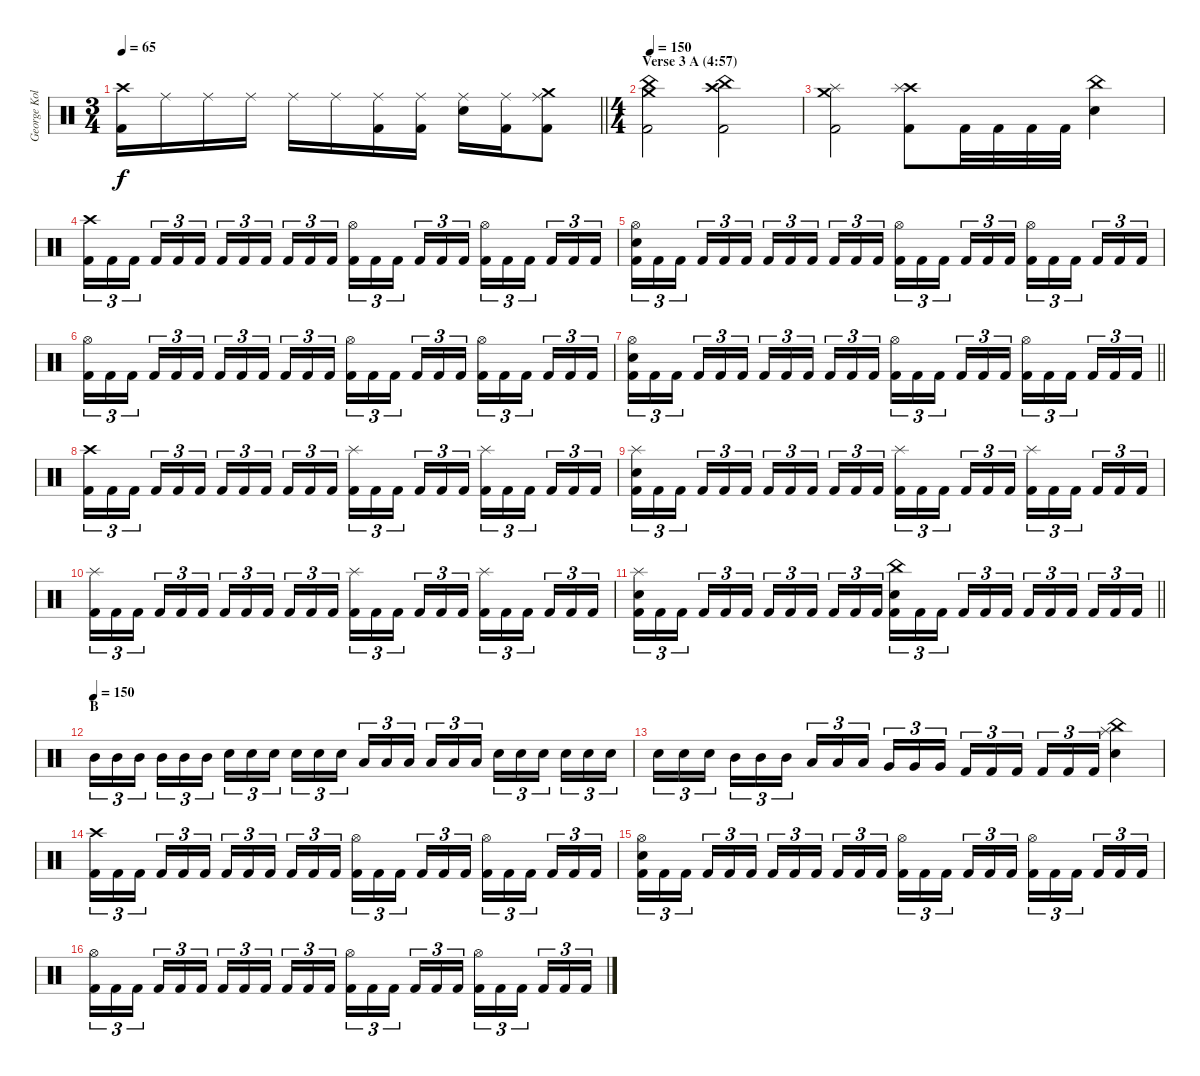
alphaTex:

\track ("George Kollias" "George Kol") {instrument percussion}
\staff {score}
\articulation defaults
\ts (3 4)
\tempo 65
\clef neutral
\barLineRight lightlight
\ks c
("Crash high (hit)" "Kick (hit) 2").16{dy f} "Ride (middle)".16 "Ride (middle)".16 "Ride (middle)".16 "Ride (middle)".16 "Ride (middle)".16 ("Ride (middle)" "Kick (hit) 2").16 ("Ride (middle)" "Kick (hit) 2").16 ("Ride (middle)" "Electric Snare (hit)").16 ("Ride (middle)" "Kick (hit) 2").16 ("Crash medium (hit)" "Ride (middle)" "Kick (hit) 2").8 |
\ts (4 4)
\section ("" "Verse 3 A (4:57)")
\tempo 140
\tempo 150
("China (hit)" "Crash medium (hit)" "Kick (hit) 2").2 ("China (hit)" "Crash high (hit)" "Kick (hit) 2").2 |
("Crash medium (hit)" "Splash (hit)" "Kick (hit) 2").2 ("Crash high (hit)" "Splash (hit)" "Kick (hit) 2").8 "Kick (hit) 2".32 "Kick (hit) 2".32 "Kick (hit) 2".32 "Kick (hit) 2".32 ("China (hit)" "Electric Snare (hit)").4 |
("Crash high (hit)" "Kick (hit) 2").16{tu (3 2)} "Kick (hit) 2".16{tu (3 2)} "Kick (hit) 2".16{tu (3 2) beam splitsecondary} "Kick (hit) 2".16{tu (3 2)} "Kick (hit) 2".16{tu (3 2)} "Kick (hit) 2".16{tu (3 2)} "Kick (hit) 2".16{tu (3 2)} "Kick (hit) 2".16{tu (3 2)} "Kick (hit) 2".16{tu (3 2) beam splitsecondary} "Kick (hit) 2".16{tu (3 2)} "Kick (hit) 2".16{tu (3 2)} "Kick (hit) 2".16{tu (3 2)} ("Hi-Hat (open)" "Kick (hit) 2").16{tu (3 2)} "Kick (hit) 2".16{tu (3 2)} "Kick (hit) 2".16{tu (3 2) beam splitsecondary} "Kick (hit) 2".16{tu (3 2)} "Kick (hit) 2".16{tu (3 2)} "Kick (hit) 2".16{tu (3 2)} ("Hi-Hat (open)" "Kick (hit) 2").16{tu (3 2)} "Kick (hit) 2".16{tu (3 2)} "Kick (hit) 2".16{tu (3 2) beam splitsecondary} "Kick (hit) 2".16{tu (3 2)} "Kick (hit) 2".16{tu (3 2)} "Kick (hit) 2".16{tu (3 2)} |
("Hi-Hat (open)" "Electric Snare (hit)" "Kick (hit) 2").16{tu (3 2)} "Kick (hit) 2".16{tu (3 2)} "Kick (hit) 2".16{tu (3 2) beam splitsecondary} "Kick (hit) 2".16{tu (3 2)} "Kick (hit) 2".16{tu (3 2)} "Kick (hit) 2".16{tu (3 2)} "Kick (hit) 2".16{tu (3 2)} "Kick (hit) 2".16{tu (3 2)} "Kick (hit) 2".16{tu (3 2) beam splitsecondary} "Kick (hit) 2".16{tu (3 2)} "Kick (hit) 2".16{tu (3 2)} "Kick (hit) 2".16{tu (3 2)} ("Hi-Hat (open)" "Kick (hit) 2").16{tu (3 2)} "Kick (hit) 2".16{tu (3 2)} "Kick (hit) 2".16{tu (3 2) beam splitsecondary} "Kick (hit) 2".16{tu (3 2)} "Kick (hit) 2".16{tu (3 2)} "Kick (hit) 2".16{tu (3 2)} ("Hi-Hat (open)" "Kick (hit) 2").16{tu (3 2)} "Kick (hit) 2".16{tu (3 2)} "Kick (hit) 2".16{tu (3 2) beam splitsecondary} "Kick (hit) 2".16{tu (3 2)} "Kick (hit) 2".16{tu (3 2)} "Kick (hit) 2".16{tu (3 2)} |
("Hi-Hat (open)" "Kick (hit) 2").16{tu (3 2)} "Kick (hit) 2".16{tu (3 2)} "Kick (hit) 2".16{tu (3 2) beam splitsecondary} "Kick (hit) 2".16{tu (3 2)} "Kick (hit) 2".16{tu (3 2)} "Kick (hit) 2".16{tu (3 2)} "Kick (hit) 2".16{tu (3 2)} "Kick (hit) 2".16{tu (3 2)} "Kick (hit) 2".16{tu (3 2) beam splitsecondary} "Kick (hit) 2".16{tu (3 2)} "Kick (hit) 2".16{tu (3 2)} "Kick (hit) 2".16{tu (3 2)} ("Hi-Hat (open)" "Kick (hit) 2").16{tu (3 2)} "Kick (hit) 2".16{tu (3 2)} "Kick (hit) 2".16{tu (3 2) beam splitsecondary} "Kick (hit) 2".16{tu (3 2)} "Kick (hit) 2".16{tu (3 2)} "Kick (hit) 2".16{tu (3 2)} ("Hi-Hat (open)" "Kick (hit) 2").16{tu (3 2)} "Kick (hit) 2".16{tu (3 2)} "Kick (hit) 2".16{tu (3 2) beam splitsecondary} "Kick (hit) 2".16{tu (3 2)} "Kick (hit) 2".16{tu (3 2)} "Kick (hit) 2".16{tu (3 2)} |
\barLineRight lightlight
("Hi-Hat (open)" "Electric Snare (hit)" "Kick (hit) 2").16{tu (3 2)} "Kick (hit) 2".16{tu (3 2)} "Kick (hit) 2".16{tu (3 2) beam splitsecondary} "Kick (hit) 2".16{tu (3 2)} "Kick (hit) 2".16{tu (3 2)} "Kick (hit) 2".16{tu (3 2)} "Kick (hit) 2".16{tu (3 2)} "Kick (hit) 2".16{tu (3 2)} "Kick (hit) 2".16{tu (3 2) beam splitsecondary} "Kick (hit) 2".16{tu (3 2)} "Kick (hit) 2".16{tu (3 2)} "Kick (hit) 2".16{tu (3 2)} ("Hi-Hat (open)" "Kick (hit) 2").16{tu (3 2)} "Kick (hit) 2".16{tu (3 2)} "Kick (hit) 2".16{tu (3 2) beam splitsecondary} "Kick (hit) 2".16{tu (3 2)} "Kick (hit) 2".16{tu (3 2)} "Kick (hit) 2".16{tu (3 2)} ("Hi-Hat (open)" "Kick (hit) 2").16{tu (3 2)} "Kick (hit) 2".16{tu (3 2)} "Kick (hit) 2".16{tu (3 2) beam splitsecondary} "Kick (hit) 2".16{tu (3 2)} "Kick (hit) 2".16{tu (3 2)} "Kick (hit) 2".16{tu (3 2)} |
("Crash high (hit)" "Kick (hit) 2").16{tu (3 2)} "Kick (hit) 2".16{tu (3 2)} "Kick (hit) 2".16{tu (3 2) beam splitsecondary} "Kick (hit) 2".16{tu (3 2)} "Kick (hit) 2".16{tu (3 2)} "Kick (hit) 2".16{tu (3 2)} "Kick (hit) 2".16{tu (3 2)} "Kick (hit) 2".16{tu (3 2)} "Kick (hit) 2".16{tu (3 2) beam splitsecondary} "Kick (hit) 2".16{tu (3 2)} "Kick (hit) 2".16{tu (3 2)} "Kick (hit) 2".16{tu (3 2)} ("Splash (hit)" "Kick (hit) 2").16{tu (3 2)} "Kick (hit) 2".16{tu (3 2)} "Kick (hit) 2".16{tu (3 2) beam splitsecondary} "Kick (hit) 2".16{tu (3 2)} "Kick (hit) 2".16{tu (3 2)} "Kick (hit) 2".16{tu (3 2)} ("Splash (hit)" "Kick (hit) 2").16{tu (3 2)} "Kick (hit) 2".16{tu (3 2)} "Kick (hit) 2".16{tu (3 2) beam splitsecondary} "Kick (hit) 2".16{tu (3 2)} "Kick (hit) 2".16{tu (3 2)} "Kick (hit) 2".16{tu (3 2)} |
("Splash (hit)" "Electric Snare (hit)" "Kick (hit) 2").16{tu (3 2)} "Kick (hit) 2".16{tu (3 2)} "Kick (hit) 2".16{tu (3 2) beam splitsecondary} "Kick (hit) 2".16{tu (3 2)} "Kick (hit) 2".16{tu (3 2)} "Kick (hit) 2".16{tu (3 2)} "Kick (hit) 2".16{tu (3 2)} "Kick (hit) 2".16{tu (3 2)} "Kick (hit) 2".16{tu (3 2) beam splitsecondary} "Kick (hit) 2".16{tu (3 2)} "Kick (hit) 2".16{tu (3 2)} "Kick (hit) 2".16{tu (3 2)} ("Splash (hit)" "Kick (hit) 2").16{tu (3 2)} "Kick (hit) 2".16{tu (3 2)} "Kick (hit) 2".16{tu (3 2) beam splitsecondary} "Kick (hit) 2".16{tu (3 2)} "Kick (hit) 2".16{tu (3 2)} "Kick (hit) 2".16{tu (3 2)} ("Splash (hit)" "Kick (hit) 2").16{tu (3 2)} "Kick (hit) 2".16{tu (3 2)} "Kick (hit) 2".16{tu (3 2) beam splitsecondary} "Kick (hit) 2".16{tu (3 2)} "Kick (hit) 2".16{tu (3 2)} "Kick (hit) 2".16{tu (3 2)} |
("Splash (hit)" "Kick (hit) 2").16{tu (3 2)} "Kick (hit) 2".16{tu (3 2)} "Kick (hit) 2".16{tu (3 2) beam splitsecondary} "Kick (hit) 2".16{tu (3 2)} "Kick (hit) 2".16{tu (3 2)} "Kick (hit) 2".16{tu (3 2)} "Kick (hit) 2".16{tu (3 2)} "Kick (hit) 2".16{tu (3 2)} "Kick (hit) 2".16{tu (3 2) beam splitsecondary} "Kick (hit) 2".16{tu (3 2)} "Kick (hit) 2".16{tu (3 2)} "Kick (hit) 2".16{tu (3 2)} ("Splash (hit)" "Kick (hit) 2").16{tu (3 2)} "Kick (hit) 2".16{tu (3 2)} "Kick (hit) 2".16{tu (3 2) beam splitsecondary} "Kick (hit) 2".16{tu (3 2)} "Kick (hit) 2".16{tu (3 2)} "Kick (hit) 2".16{tu (3 2)} ("Splash (hit)" "Kick (hit) 2").16{tu (3 2)} "Kick (hit) 2".16{tu (3 2)} "Kick (hit) 2".16{tu (3 2) beam splitsecondary} "Kick (hit) 2".16{tu (3 2)} "Kick (hit) 2".16{tu (3 2)} "Kick (hit) 2".16{tu (3 2)} |
\barLineRight lightlight
("Splash (hit)" "Electric Snare (hit)" "Kick (hit) 2").16{tu (3 2)} "Kick (hit) 2".16{tu (3 2)} "Kick (hit) 2".16{tu (3 2) beam splitsecondary} "Kick (hit) 2".16{tu (3 2)} "Kick (hit) 2".16{tu (3 2)} "Kick (hit) 2".16{tu (3 2)} "Kick (hit) 2".16{tu (3 2)} "Kick (hit) 2".16{tu (3 2)} "Kick (hit) 2".16{tu (3 2) beam splitsecondary} "Kick (hit) 2".16{tu (3 2)} "Kick (hit) 2".16{tu (3 2)} "Kick (hit) 2".16{tu (3 2)} ("China (hit)" "Electric Snare (hit)" "Kick (hit) 2").16{tu (3 2)} "Kick (hit) 2".16{tu (3 2)} "Kick (hit) 2".16{tu (3 2) beam splitsecondary} "Kick (hit) 2".16{tu (3 2)} "Kick (hit) 2".16{tu (3 2)} "Kick (hit) 2".16{tu (3 2)} "Kick (hit) 2".16{tu (3 2)} "Kick (hit) 2".16{tu (3 2)} "Kick (hit) 2".16{tu (3 2) beam splitsecondary} "Kick (hit) 2".16{tu (3 2)} "Kick (hit) 2".16{tu (3 2)} "Kick (hit) 2".16{tu (3 2)} |
\section ("" "B")
\tempo (150)
"Mid Tom (hit)".16{tu (3 2)} "Mid Tom (hit)".16{tu (3 2)} "Mid Tom (hit)".16{tu (3 2) beam splitsecondary} "Mid Tom (hit)".16{tu (3 2)} "Mid Tom (hit)".16{tu (3 2)} "Mid Tom (hit)".16{tu (3 2)} "Electric Snare (hit)".16{tu (3 2)} "Electric Snare (hit)".16{tu (3 2)} "Electric Snare (hit)".16{tu (3 2) beam splitsecondary} "Electric Snare (hit)".16{tu (3 2)} "Electric Snare (hit)".16{tu (3 2)} "Electric Snare (hit)".16{tu (3 2)} "Low Tom (hit)".16{tu (3 2)} "Low Tom (hit)".16{tu (3 2)} "Low Tom (hit)".16{tu (3 2) beam splitsecondary} "Low Tom (hit)".16{tu (3 2)} "Low Tom (hit)".16{tu (3 2)} "Low Tom (hit)".16{tu (3 2)} "Electric Snare (hit)".16{tu (3 2)} "Electric Snare (hit)".16{tu (3 2)} "Electric Snare (hit)".16{tu (3 2) beam splitsecondary} "Electric Snare (hit)".16{tu (3 2)} "Electric Snare (hit)".16{tu (3 2)} "Electric Snare (hit)".16{tu (3 2)} |
"Electric Snare (hit)".16{tu (3 2)} "Electric Snare (hit)".16{tu (3 2)} "Electric Snare (hit)".16{tu (3 2) beam splitsecondary} "Mid Tom (hit)".16{tu (3 2)} "Mid Tom (hit)".16{tu (3 2)} "Mid Tom (hit)".16{tu (3 2)} "Low Tom (hit)".16{tu (3 2)} "Low Tom (hit)".16{tu (3 2)} "Low Tom (hit)".16{tu (3 2) beam splitsecondary} "Very Low Tom (hit)".16{tu (3 2)} "Very Low Tom (hit)".16{tu (3 2)} "Very Low Tom (hit)".16{tu (3 2)} "Kick (hit) 2".16{tu (3 2)} "Kick (hit) 2".16{tu (3 2)} "Kick (hit) 2".16{tu (3 2) beam splitsecondary} "Kick (hit) 2".16{tu (3 2)} "Kick (hit) 2".16{tu (3 2)} "Kick (hit) 2".16{tu (3 2)} ("Splash (hit)" "China (hit)" "Electric Snare (hit)").4 |
("Crash high (hit)" "Kick (hit) 2").16{tu (3 2)} "Kick (hit) 2".16{tu (3 2)} "Kick (hit) 2".16{tu (3 2) beam splitsecondary} "Kick (hit) 2".16{tu (3 2)} "Kick (hit) 2".16{tu (3 2)} "Kick (hit) 2".16{tu (3 2)} "Kick (hit) 2".16{tu (3 2)} "Kick (hit) 2".16{tu (3 2)} "Kick (hit) 2".16{tu (3 2) beam splitsecondary} "Kick (hit) 2".16{tu (3 2)} "Kick (hit) 2".16{tu (3 2)} "Kick (hit) 2".16{tu (3 2)} ("Hi-Hat (open)" "Kick (hit) 2").16{tu (3 2)} "Kick (hit) 2".16{tu (3 2)} "Kick (hit) 2".16{tu (3 2) beam splitsecondary} "Kick (hit) 2".16{tu (3 2)} "Kick (hit) 2".16{tu (3 2)} "Kick (hit) 2".16{tu (3 2)} ("Hi-Hat (open)" "Kick (hit) 2").16{tu (3 2)} "Kick (hit) 2".16{tu (3 2)} "Kick (hit) 2".16{tu (3 2) beam splitsecondary} "Kick (hit) 2".16{tu (3 2)} "Kick (hit) 2".16{tu (3 2)} "Kick (hit) 2".16{tu (3 2)} |
("Hi-Hat (open)" "Electric Snare (hit)" "Kick (hit) 2").16{tu (3 2)} "Kick (hit) 2".16{tu (3 2)} "Kick (hit) 2".16{tu (3 2) beam splitsecondary} "Kick (hit) 2".16{tu (3 2)} "Kick (hit) 2".16{tu (3 2)} "Kick (hit) 2".16{tu (3 2)} "Kick (hit) 2".16{tu (3 2)} "Kick (hit) 2".16{tu (3 2)} "Kick (hit) 2".16{tu (3 2) beam splitsecondary} "Kick (hit) 2".16{tu (3 2)} "Kick (hit) 2".16{tu (3 2)} "Kick (hit) 2".16{tu (3 2)} ("Hi-Hat (open)" "Kick (hit) 2").16{tu (3 2)} "Kick (hit) 2".16{tu (3 2)} "Kick (hit) 2".16{tu (3 2) beam splitsecondary} "Kick (hit) 2".16{tu (3 2)} "Kick (hit) 2".16{tu (3 2)} "Kick (hit) 2".16{tu (3 2)} ("Hi-Hat (open)" "Kick (hit) 2").16{tu (3 2)} "Kick (hit) 2".16{tu (3 2)} "Kick (hit) 2".16{tu (3 2) beam splitsecondary} "Kick (hit) 2".16{tu (3 2)} "Kick (hit) 2".16{tu (3 2)} "Kick (hit) 2".16{tu (3 2)} |
("Hi-Hat (open)" "Kick (hit) 2").16{tu (3 2)} "Kick (hit) 2".16{tu (3 2)} "Kick (hit) 2".16{tu (3 2) beam splitsecondary} "Kick (hit) 2".16{tu (3 2)} "Kick (hit) 2".16{tu (3 2)} "Kick (hit) 2".16{tu (3 2)} "Kick (hit) 2".16{tu (3 2)} "Kick (hit) 2".16{tu (3 2)} "Kick (hit) 2".16{tu (3 2) beam splitsecondary} "Kick (hit) 2".16{tu (3 2)} "Kick (hit) 2".16{tu (3 2)} "Kick (hit) 2".16{tu (3 2)} ("Hi-Hat (open)" "Kick (hit) 2").16{tu (3 2)} "Kick (hit) 2".16{tu (3 2)} "Kick (hit) 2".16{tu (3 2) beam splitsecondary} "Kick (hit) 2".16{tu (3 2)} "Kick (hit) 2".16{tu (3 2)} "Kick (hit) 2".16{tu (3 2)} ("Hi-Hat (open)" "Kick (hit) 2").16{tu (3 2)} "Kick (hit) 2".16{tu (3 2)} "Kick (hit) 2".16{tu (3 2) beam splitsecondary} "Kick (hit) 2".16{tu (3 2)} "Kick (hit) 2".16{tu (3 2)} "Kick (hit) 2".16{tu (3 2)}
